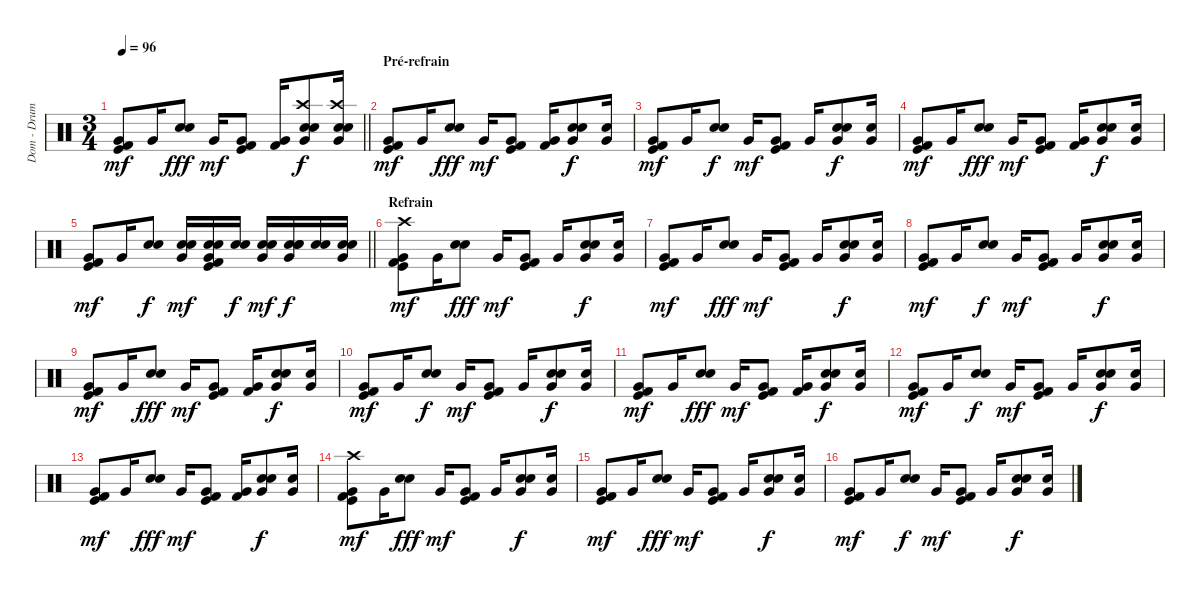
\track ("Dom - Drums" "Dom - Drum") {instrument percussion}
\staff {score}
\articulation defaults
\ts (3 4)
\tempo 96
\clef neutral
\barLineRight lightlight
\ks c
("Very Low Tom (hit)" "Kick (hit)" "Kick (hit) 2").8{dy mf} "Very Low Tom (hit)".16 ("Electric Snare (hit)" "Snare (hit) 2").8{dy fff} "Very Low Tom (hit)".16{dy mf} ("Very Low Tom (hit)" "Kick (hit)" "Kick (hit) 2").8 ("Very Low Tom (hit)" "Kick (hit) 2").16 ("Crash high (hit)" "Very Low Tom (hit)" "Snare (hit) 2" "Hand Clap (hit)").8{dy f} ("Crash high (hit)" "Very Low Tom (hit)" "Snare (hit) 2" "Hand Clap (hit)").16 |
\section ("" "Pré-refrain")
("Very Low Tom (hit)" "Kick (hit)" "Kick (hit) 2").8{dy mf} "Very Low Tom (hit)".16 ("Electric Snare (hit)" "Snare (hit) 2").8{dy fff} "Very Low Tom (hit)".16{dy mf} ("Very Low Tom (hit)" "Kick (hit)" "Kick (hit) 2").8 ("Very Low Tom (hit)" "Kick (hit) 2").16 ("Very Low Tom (hit)" "Snare (hit) 2" "Hand Clap (hit)").8{dy f} ("Very Low Tom (hit)" "Hand Clap (hit)").16 |
("Very Low Tom (hit)" "Kick (hit)" "Kick (hit) 2").8{dy mf} "Very Low Tom (hit)".16 ("Electric Snare (hit)" "Snare (hit) 2").8{dy f} "Very Low Tom (hit)".16{dy mf} ("Very Low Tom (hit)" "Kick (hit)" "Kick (hit) 2").8 "Very Low Tom (hit)".16 ("Very Low Tom (hit)" "Snare (hit) 2" "Hand Clap (hit)").8{dy f} ("Very Low Tom (hit)" "Hand Clap (hit)").16 |
("Very Low Tom (hit)" "Kick (hit)" "Kick (hit) 2").8{dy mf} "Very Low Tom (hit)".16 ("Electric Snare (hit)" "Snare (hit) 2").8{dy fff} "Very Low Tom (hit)".16{dy mf} ("Very Low Tom (hit)" "Kick (hit)" "Kick (hit) 2").8 ("Very Low Tom (hit)" "Kick (hit) 2").16 ("Very Low Tom (hit)" "Snare (hit) 2" "Hand Clap (hit)").8{dy f} ("Very Low Tom (hit)" "Hand Clap (hit)").16 |
\barLineRight lightlight
("Very Low Tom (hit)" "Kick (hit)" "Kick (hit) 2").8{dy mf} "Very Low Tom (hit)".16 ("Electric Snare (hit)" "Snare (hit) 2").8{dy f} ("Very Low Tom (hit)" "Snare (hit) 2" "Electric Snare (hit)").16{dy mf} ("Electric Snare (hit)" "Very Low Tom (hit)" "Snare (hit) 2" "Kick (hit)" "Kick (hit) 2").16 ("Snare (hit) 2" "Electric Snare (hit)").16{dy f} ("Very Low Tom (hit)" "Snare (hit) 2" "Electric Snare (hit)").16{dy mf} ("Very Low Tom (hit)" "Snare (hit) 2" "Hand Clap (hit)" "Electric Snare (hit)").16{dy f} ("Snare (hit) 2" "Electric Snare (hit)").16 ("Very Low Tom (hit)" "Snare (hit) 2" "Hand Clap (hit)").16 |
\section ("" "Refrain")
("Crash high (hit)" "Very Low Tom (hit)" "Kick (hit)" "Kick (hit) 2").8{dy mf} "Very Low Tom (hit)".16 ("Electric Snare (hit)" "Snare (hit) 2").8{dy fff} "Very Low Tom (hit)".16{dy mf} ("Very Low Tom (hit)" "Kick (hit)" "Kick (hit) 2").8 "Very Low Tom (hit)".16 ("Very Low Tom (hit)" "Snare (hit) 2" "Hand Clap (hit)").8{dy f} ("Very Low Tom (hit)" "Hand Clap (hit)").16 |
("Very Low Tom (hit)" "Kick (hit)" "Kick (hit) 2").8{dy mf} "Very Low Tom (hit)".16 ("Electric Snare (hit)" "Snare (hit) 2").8{dy fff} "Very Low Tom (hit)".16{dy mf} ("Very Low Tom (hit)" "Kick (hit)" "Kick (hit) 2").8 "Very Low Tom (hit)".16 ("Very Low Tom (hit)" "Snare (hit) 2" "Hand Clap (hit)").8{dy f} ("Very Low Tom (hit)" "Hand Clap (hit)").16 |
("Very Low Tom (hit)" "Kick (hit)" "Kick (hit) 2").8{dy mf} "Very Low Tom (hit)".16 ("Electric Snare (hit)" "Snare (hit) 2").8{dy f} "Very Low Tom (hit)".16{dy mf} ("Very Low Tom (hit)" "Kick (hit)" "Kick (hit) 2").8 "Very Low Tom (hit)".16 ("Very Low Tom (hit)" "Snare (hit) 2" "Hand Clap (hit)").8{dy f} ("Very Low Tom (hit)" "Hand Clap (hit)").16 |
("Very Low Tom (hit)" "Kick (hit)" "Kick (hit) 2").8{dy mf} "Very Low Tom (hit)".16 ("Electric Snare (hit)" "Snare (hit) 2").8{dy fff} "Very Low Tom (hit)".16{dy mf} ("Very Low Tom (hit)" "Kick (hit)" "Kick (hit) 2").8 ("Very Low Tom (hit)" "Kick (hit) 2").16 ("Very Low Tom (hit)" "Snare (hit) 2" "Hand Clap (hit)").8{dy f} ("Very Low Tom (hit)" "Hand Clap (hit)").16 |
("Very Low Tom (hit)" "Kick (hit)" "Kick (hit) 2").8{dy mf} "Very Low Tom (hit)".16 ("Electric Snare (hit)" "Snare (hit) 2").8{dy f} "Very Low Tom (hit)".16{dy mf} ("Very Low Tom (hit)" "Kick (hit)" "Kick (hit) 2").8 "Very Low Tom (hit)".16 ("Very Low Tom (hit)" "Snare (hit) 2" "Hand Clap (hit)").8{dy f} ("Very Low Tom (hit)" "Hand Clap (hit)").16 |
("Very Low Tom (hit)" "Kick (hit)" "Kick (hit) 2").8{dy mf} "Very Low Tom (hit)".16 ("Electric Snare (hit)" "Snare (hit) 2").8{dy fff} "Very Low Tom (hit)".16{dy mf} ("Very Low Tom (hit)" "Kick (hit)" "Kick (hit) 2").8 ("Very Low Tom (hit)" "Kick (hit) 2").16 ("Very Low Tom (hit)" "Snare (hit) 2" "Hand Clap (hit)").8{dy f} ("Very Low Tom (hit)" "Hand Clap (hit)").16 |
("Very Low Tom (hit)" "Kick (hit)" "Kick (hit) 2").8{dy mf} "Very Low Tom (hit)".16 ("Electric Snare (hit)" "Snare (hit) 2").8{dy f} "Very Low Tom (hit)".16{dy mf} ("Very Low Tom (hit)" "Kick (hit)" "Kick (hit) 2").8 "Very Low Tom (hit)".16 ("Very Low Tom (hit)" "Snare (hit) 2" "Hand Clap (hit)").8{dy f} ("Very Low Tom (hit)" "Hand Clap (hit)").16 |
("Very Low Tom (hit)" "Kick (hit)" "Kick (hit) 2").8{dy mf} "Very Low Tom (hit)".16 ("Electric Snare (hit)" "Snare (hit) 2").8{dy fff} "Very Low Tom (hit)".16{dy mf} ("Very Low Tom (hit)" "Kick (hit)" "Kick (hit) 2").8 ("Very Low Tom (hit)" "Kick (hit) 2").16 ("Very Low Tom (hit)" "Snare (hit) 2" "Hand Clap (hit)").8{dy f} ("Very Low Tom (hit)" "Hand Clap (hit)").16 |
("Crash high (hit)" "Very Low Tom (hit)" "Kick (hit)" "Kick (hit) 2").8{dy mf} "Very Low Tom (hit)".16 ("Electric Snare (hit)" "Snare (hit) 2").8{dy fff} "Very Low Tom (hit)".16{dy mf} ("Very Low Tom (hit)" "Kick (hit)" "Kick (hit) 2").8 "Very Low Tom (hit)".16 ("Very Low Tom (hit)" "Snare (hit) 2" "Hand Clap (hit)").8{dy f} ("Very Low Tom (hit)" "Hand Clap (hit)").16 |
("Very Low Tom (hit)" "Kick (hit)" "Kick (hit) 2").8{dy mf} "Very Low Tom (hit)".16 ("Electric Snare (hit)" "Snare (hit) 2").8{dy fff} "Very Low Tom (hit)".16{dy mf} ("Very Low Tom (hit)" "Kick (hit)" "Kick (hit) 2").8 "Very Low Tom (hit)".16 ("Very Low Tom (hit)" "Snare (hit) 2" "Hand Clap (hit)").8{dy f} ("Very Low Tom (hit)" "Hand Clap (hit)").16 |
("Very Low Tom (hit)" "Kick (hit)" "Kick (hit) 2").8{dy mf} "Very Low Tom (hit)".16 ("Electric Snare (hit)" "Snare (hit) 2").8{dy f} "Very Low Tom (hit)".16{dy mf} ("Very Low Tom (hit)" "Kick (hit)" "Kick (hit) 2").8 "Very Low Tom (hit)".16 ("Very Low Tom (hit)" "Snare (hit) 2" "Hand Clap (hit)").8{dy f} ("Very Low Tom (hit)" "Hand Clap (hit)").16
